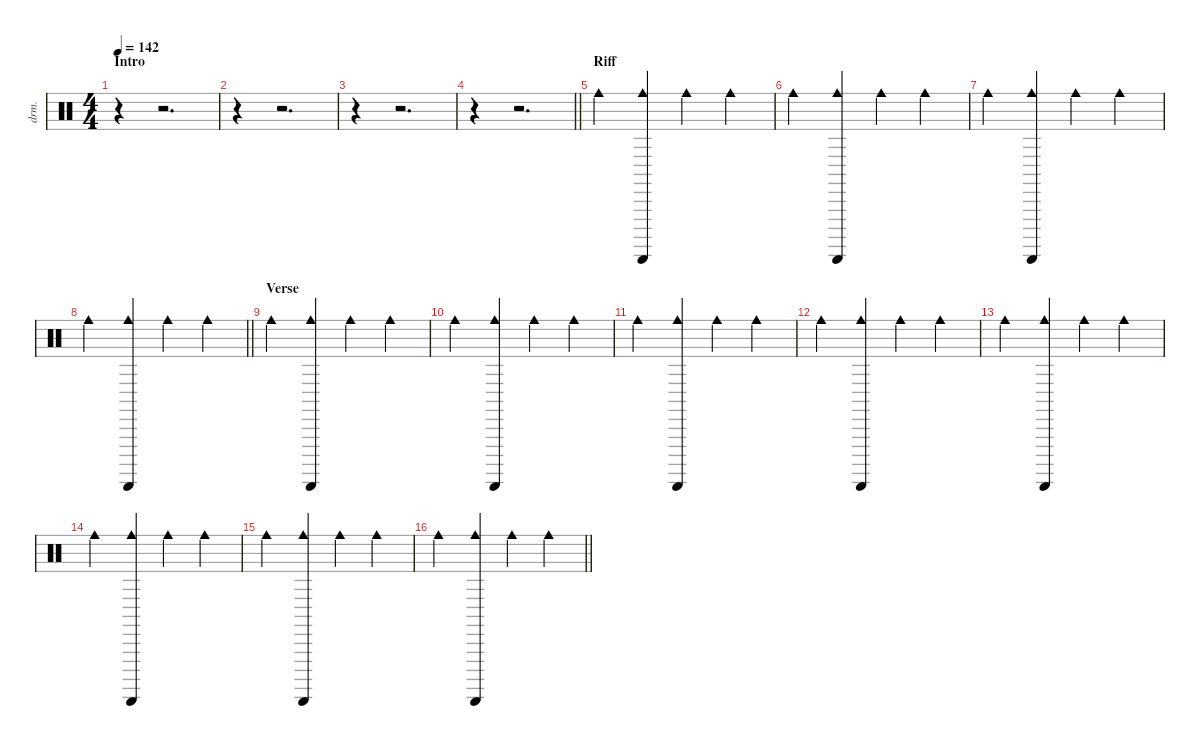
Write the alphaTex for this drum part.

\defaultSystemsLayout 4
\hideDynamics
\bracketExtendMode nobrackets
\otherSystemsTrackNameOrientation horizontal
\track ("Percussion" "drm.") {instrument percussion}
\staff {score}
\articulation defaults
\ts (4 4)
\beaming (8 2 2 2 2)
\section ("" "Intro")
\tempo 142
\clef neutral
\ks c
r.4{dy mf beam Down} r.2{d beam Down} |
r.4{beam Down} r.2{d beam Down} |
r.4{beam Down} r.2{d beam Down} |
\barLineRight lightlight
r.4{beam Down} r.2{d beam Down} |
\section ("" "Riff")
"Cowbell medium (hit)".4{beam Down} ("Guiro (scrap-return)" "Cowbell medium (hit)").4{dy p beam Up} "Cowbell medium (hit)".4{dy mf beam Down} "Cowbell medium (hit)".4{beam Down} |
"Cowbell medium (hit)".4{beam Down} ("Guiro (scrap-return)" "Cowbell medium (hit)").4{dy p beam Up} "Cowbell medium (hit)".4{dy mf beam Down} "Cowbell medium (hit)".4{beam Down} |
"Cowbell medium (hit)".4{beam Down} ("Guiro (scrap-return)" "Cowbell medium (hit)").4{dy p beam Up} "Cowbell medium (hit)".4{dy mf beam Down} "Cowbell medium (hit)".4{beam Down} |
\barLineRight lightlight "Cowbell medium (hit)".4{beam Down}
("Guiro (scrap-return)" "Cowbell medium (hit)").4{dy p beam Up} "Cowbell medium (hit)".4{dy mf beam Down} "Cowbell medium (hit)".4{beam Down} |
\section ("" "Verse")
"Cowbell medium (hit)".4{beam Down} ("Guiro (scrap-return)" "Cowbell medium (hit)").4{dy p beam Up} "Cowbell medium (hit)".4{dy mf beam Down} "Cowbell medium (hit)".4{beam Down} |
"Cowbell medium (hit)".4{beam Down} ("Guiro (scrap-return)" "Cowbell medium (hit)").4{dy p beam Up} "Cowbell medium (hit)".4{dy mf beam Down} "Cowbell medium (hit)".4{beam Down} |
"Cowbell medium (hit)".4{beam Down} ("Guiro (scrap-return)" "Cowbell medium (hit)").4{dy p beam Up} "Cowbell medium (hit)".4{dy mf beam Down} "Cowbell medium (hit)".4{beam Down} |
"Cowbell medium (hit)".4{beam Down} ("Guiro (scrap-return)" "Cowbell medium (hit)").4{dy p beam Up} "Cowbell medium (hit)".4{dy mf beam Down} "Cowbell medium (hit)".4{beam Down} |
"Cowbell medium (hit)".4{beam Down} ("Guiro (scrap-return)" "Cowbell medium (hit)").4{dy p beam Up} "Cowbell medium (hit)".4{dy mf beam Down} "Cowbell medium (hit)".4{beam Down} |
"Cowbell medium (hit)".4{beam Down} ("Guiro (scrap-return)" "Cowbell medium (hit)").4{dy p beam Up} "Cowbell medium (hit)".4{dy mf beam Down} "Cowbell medium (hit)".4{beam Down} |
"Cowbell medium (hit)".4{beam Down} ("Guiro (scrap-return)" "Cowbell medium (hit)").4{dy p beam Up} "Cowbell medium (hit)".4{dy mf beam Down} "Cowbell medium (hit)".4{beam Down} |
\barLineRight lightlight "Cowbell medium (hit)".4{beam Down}
("Guiro (scrap-return)" "Cowbell medium (hit)").4{dy p beam Up} "Cowbell medium (hit)".4{dy mf beam Down} "Cowbell medium (hit)".4{beam Down}
